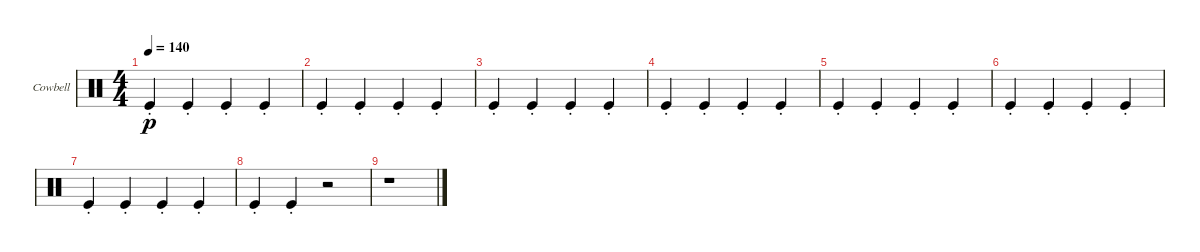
\defaultSystemsLayout 4
\bracketExtendMode groupsimilarinstruments
\firstSystemTrackNameOrientation horizontal
\otherSystemsTrackNameOrientation horizontal
\track ("Cowbell" "Cowbell") {instrument percussion}
\staff {score}
\articulation defaults
\ts (4 4)
\tempo 140
\clef neutral
\scale
0.25
\ks c "Kick (hit)"{st}.4{dy p} "Kick (hit)"{st}.4 "Kick (hit)"{st}.4 "Kick (hit)"{st}.4
|
\scale
0.25 "Kick (hit)"{st}.4 "Kick (hit)"{st}.4 "Kick (hit)"{st}.4 "Kick (hit)"{st}.4 |
\scale
0.25 "Kick (hit)"{st}.4 "Kick (hit)"{st}.4 "Kick (hit)"{st}.4 "Kick (hit)"{st}.4 |
\scale
0.25 "Kick (hit)"{st}.4 "Kick (hit)"{st}.4 "Kick (hit)"{st}.4 "Kick (hit)"{st}.4 |
\scale
0.257511 "Kick (hit)"{st}.4 "Kick (hit)"{st}.4 "Kick (hit)"{st}.4 "Kick (hit)"{st}.4 |
\scale
0.257511 "Kick (hit)"{st}.4 "Kick (hit)"{st}.4 "Kick (hit)"{st}.4 "Kick (hit)"{st}.4 |
\scale
0.257511 "Kick (hit)"{st}.4 "Kick (hit)"{st}.4 "Kick (hit)"{st}.4 "Kick (hit)"{st}.4 |
\scale
0.227468 "Kick (hit)"{st}.4 "Kick (hit)"{st}.4 r.2 |
r.1
